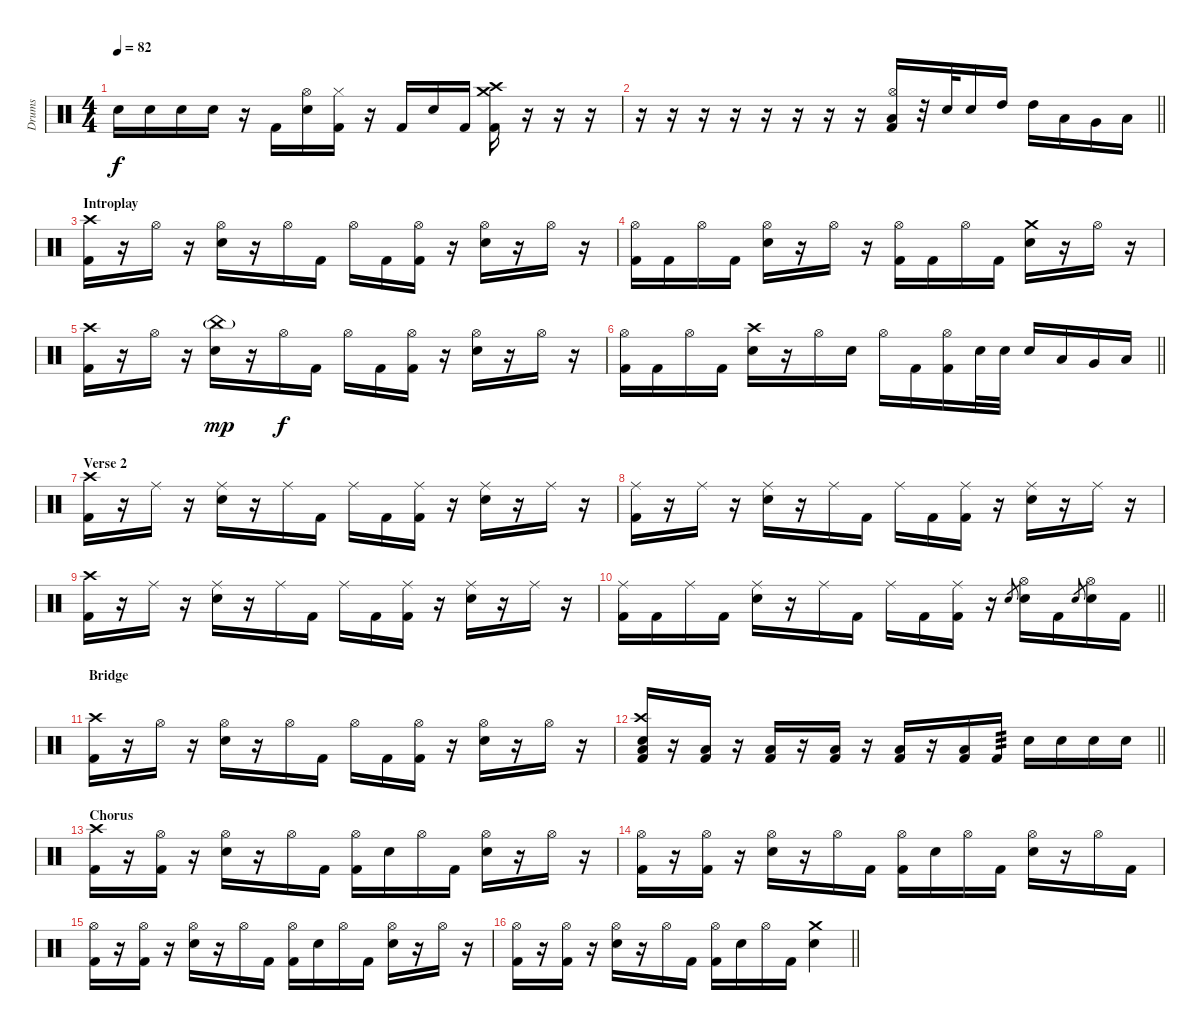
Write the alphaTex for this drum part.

\track ("Drums" "Drums") {instrument percussion}
\staff {score}
\articulation defaults
\ts (4 4)
\tempo 82
\clef neutral
\ks c "Electric Snare (hit)".16{dy f} "Electric Snare (hit)".16 "Electric Snare (hit)".16 "Electric Snare (hit)".16
r.16 "Kick (hit) 2".16 ("Hi-Hat (open)" "Electric Snare (hit)").16 ("Hi-Hat (closed)" "Kick (hit) 2").16 r.16 "Kick (hit) 2".16 "Electric Snare (hit)".16 "Kick (hit) 2".16 ("Crash medium (hit)" "Crash high (hit)" "Kick (hit) 2").16 r.16 r.16 r.16 |
\barLineRight lightlight
r.16 r.16 r.16 r.16 r.16 r.16 r.16 r.16 ("Hi-Hat (open)" "Low Floor Tom (hit)" "Kick (hit) 2").16 r.32 "Electric Snare (hit)".32 "Electric Snare (hit)".16 "High Tom (hit)".16 "High Tom (hit)".16 "Low Tom (hit)".16 "Very Low Tom (hit)".16 "Low Floor Tom (hit)".16 |
\section ("" "Introplay")
("Crash high (hit)" "Kick (hit) 2").16 r.16 "Hi-Hat (open)".16 r.16 ("Hi-Hat (open)" "Electric Snare (hit)").16 r.16 "Hi-Hat (open)".16 "Kick (hit) 2".16 "Hi-Hat (open)".16 "Kick (hit) 2".16 ("Hi-Hat (open)" "Kick (hit) 2").16 r.16 ("Hi-Hat (open)" "Electric Snare (hit)").16 r.16 "Hi-Hat (open)".16 r.16 |
("Hi-Hat (open)" "Kick (hit) 2").16 "Kick (hit) 2".16 "Hi-Hat (open)".16 "Kick (hit) 2".16 ("Hi-Hat (open)" "Electric Snare (hit)").16 r.16 "Hi-Hat (open)".16 r.16 ("Hi-Hat (open)" "Kick (hit) 2").16 "Kick (hit) 2".16 "Hi-Hat (open)".16 "Kick (hit) 2".16 ("Crash medium (hit)" "Electric Snare (hit)").16 r.16 "Hi-Hat (open)".16 r.16 |
("Crash high (hit)" "Kick (hit) 2").16 r.16 "Hi-Hat (open)".16 r.16 ("China (hit)"{g} "Electric Snare (hit)").16{dy mp} r.16 "Hi-Hat (open)".16{dy f} "Kick (hit) 2".16 "Hi-Hat (open)".16 "Kick (hit) 2".16 ("Hi-Hat (open)" "Kick (hit) 2").16 r.16 ("Hi-Hat (open)" "Electric Snare (hit)").16 r.16 "Hi-Hat (open)".16 r.16 |
\barLineRight lightlight
("Hi-Hat (open)" "Kick (hit) 2").16 "Kick (hit) 2".16 "Hi-Hat (open)".16 "Kick (hit) 2".16 ("Crash high (hit)" "Electric Snare (hit)").16 r.16 "Hi-Hat (open)".16 "Electric Snare (hit)".16 "Hi-Hat (open)".16 "Kick (hit) 2".16 ("Hi-Hat (open)" "Kick (hit) 2").16 "Electric Snare (hit)".32 "Electric Snare (hit)".32 "Electric Snare (hit)".16 "Low Tom (hit)".16 "Very Low Tom (hit)".16 "Low Floor Tom (hit)".16 |
\section ("" "Verse 2")
("Crash high (hit)" "Kick (hit) 2").16 r.16 "Ride (middle)".16 r.16 ("Ride (middle)" "Electric Snare (hit)").16 r.16 "Ride (middle)".16 "Kick (hit) 2".16 "Ride (middle)".16 "Kick (hit) 2".16 ("Ride (middle)" "Kick (hit) 2").16 r.16 ("Ride (middle)" "Electric Snare (hit)").16 r.16 "Ride (middle)".16 r.16 |
("Ride (middle)" "Kick (hit) 2").16 r.16 "Ride (middle)".16 r.16 ("Ride (middle)" "Electric Snare (hit)").16 r.16 "Ride (middle)".16 "Kick (hit) 2".16 "Ride (middle)".16 "Kick (hit) 2".16 ("Ride (middle)" "Kick (hit) 2").16 r.16 ("Ride (middle)" "Electric Snare (hit)").16 r.16 "Ride (middle)".16 r.16 |
("Crash high (hit)" "Kick (hit) 2").16 r.16 "Ride (middle)".16 r.16 ("Ride (middle)" "Electric Snare (hit)").16 r.16 "Ride (middle)".16 "Kick (hit) 2".16 "Ride (middle)".16 "Kick (hit) 2".16 ("Ride (middle)" "Kick (hit) 2").16 r.16 ("Ride (middle)" "Electric Snare (hit)").16 r.16 "Ride (middle)".16 r.16 |
\barLineRight lightlight
("Ride (middle)" "Kick (hit) 2").16 "Kick (hit) 2".16 "Ride (middle)".16 "Kick (hit) 2".16 ("Ride (middle)" "Electric Snare (hit)").16 r.16 "Ride (middle)".16 "Kick (hit) 2".16 "Ride (middle)".16 "Kick (hit) 2".16 ("Ride (middle)" "Kick (hit) 2").16 r.16 "Electric Snare (hit)".8{gr} ("Hi-Hat (open)" "Electric Snare (hit)").16 "Kick (hit) 2".16 "Electric Snare (hit)".8{gr} ("Hi-Hat (open)" "Electric Snare (hit)").16 "Kick (hit) 2".16 |
\section ("" "Bridge")
("Crash high (hit)" "Kick (hit) 2").16 r.16 "Hi-Hat (open)".16 r.16 ("Hi-Hat (open)" "Electric Snare (hit)").16 r.16 "Hi-Hat (open)".16 "Kick (hit) 2".16 "Hi-Hat (open)".16 "Kick (hit) 2".16 ("Hi-Hat (open)" "Kick (hit) 2").16 r.16 ("Hi-Hat (open)" "Electric Snare (hit)").16 r.16 "Hi-Hat (open)".16 r.16 |
\barLineRight lightlight
("Crash high (hit)" "Electric Snare (hit)" "Low Floor Tom (hit)" "Kick (hit) 2").16 r.16 ("Low Floor Tom (hit)" "Kick (hit) 2").16 r.16 ("Low Floor Tom (hit)" "Kick (hit) 2").16 r.16 ("Low Floor Tom (hit)" "Kick (hit) 2").16 r.16 ("Low Floor Tom (hit)" "Kick (hit) 2").16 r.16 ("Low Floor Tom (hit)" "Kick (hit) 2").16 "Kick (hit) 2".16{tp 3} "Electric Snare (hit)".16 "Electric Snare (hit)".16 "Electric Snare (hit)".16 "Electric Snare (hit)".16 |
\section ("" "Chorus")
("Crash high (hit)" "Kick (hit) 2").16 r.16 ("Hi-Hat (open)" "Kick (hit) 2").16 r.16 ("Hi-Hat (open)" "Electric Snare (hit)").16 r.16 "Hi-Hat (open)".16 "Kick (hit) 2".16 ("Hi-Hat (open)" "Kick (hit) 2").16 "Electric Snare (hit)".16 "Hi-Hat (open)".16 "Kick (hit) 2".16 ("Hi-Hat (open)" "Electric Snare (hit)").16 r.16 "Hi-Hat (open)".16 r.16 |
("Hi-Hat (open)" "Kick (hit) 2").16 r.16 ("Hi-Hat (open)" "Kick (hit) 2").16 r.16 ("Hi-Hat (open)" "Electric Snare (hit)").16 r.16 "Hi-Hat (open)".16 "Kick (hit) 2".16 ("Hi-Hat (open)" "Kick (hit) 2").16 "Electric Snare (hit)".16 "Hi-Hat (open)".16 "Kick (hit) 2".16 ("Hi-Hat (open)" "Electric Snare (hit)").16 r.16 "Hi-Hat (open)".16 "Kick (hit) 2".16 |
("Hi-Hat (open)" "Kick (hit) 2").16 r.16 ("Hi-Hat (open)" "Kick (hit) 2").16 r.16 ("Hi-Hat (open)" "Electric Snare (hit)").16 r.16 "Hi-Hat (open)".16 "Kick (hit) 2".16 ("Hi-Hat (open)" "Kick (hit) 2").16 "Electric Snare (hit)".16 "Hi-Hat (open)".16 "Kick (hit) 2".16 ("Hi-Hat (open)" "Electric Snare (hit)").16 r.16 "Hi-Hat (open)".16 r.16 |
\barLineRight lightlight
("Hi-Hat (open)" "Kick (hit) 2").16 r.16 ("Hi-Hat (open)" "Kick (hit) 2").16 r.16 ("Hi-Hat (open)" "Electric Snare (hit)").16 r.16 "Hi-Hat (open)".16 "Kick (hit) 2".16 ("Hi-Hat (open)" "Kick (hit) 2").16 "Electric Snare (hit)".16 "Hi-Hat (open)".16 "Kick (hit) 2".16 ("Crash medium (hit)" "Electric Snare (hit)").4
